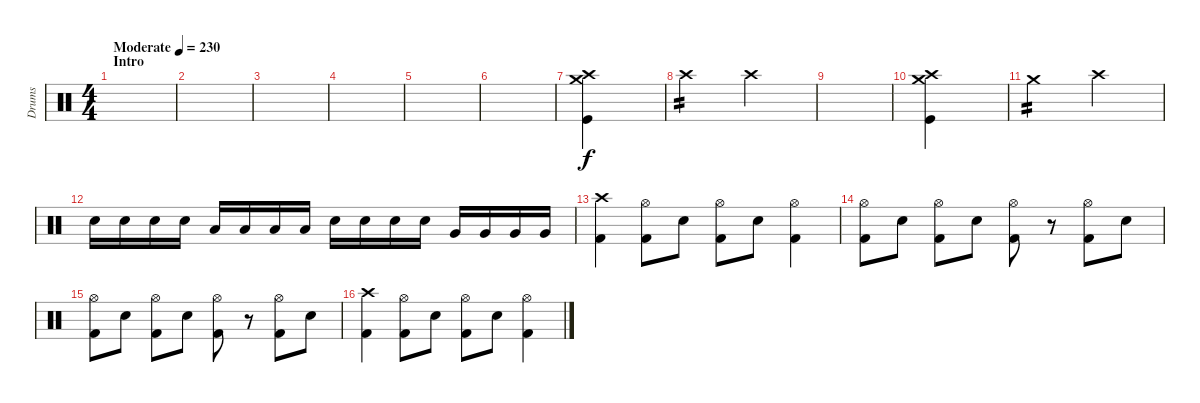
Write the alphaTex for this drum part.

\track ("Drums" "Drums") {instrument percussion}
\staff {score}
\articulation defaults
\ts (4 4)
\section ("" "Intro")
\tempo (230 "Moderate")
\clef neutral
\ks c
|
|
|
|
|
|
("Crash high (hit)" "Crash medium (hit)" "Kick (hit)").4 |
"Crash high (hit)".4{tp 2} "Crash high (hit)".4 |
|
("Crash high (hit)" "Crash medium (hit)" "Kick (hit)").4 |
"Crash medium (hit)".4{tp 2} "Crash high (hit)".4 |
"Electric Snare (hit)".16 "Electric Snare (hit)".16 "Electric Snare (hit)".16 "Electric Snare (hit)".16 "Low Tom (hit)".16 "Low Tom (hit)".16 "Low Tom (hit)".16 "Low Tom (hit)".16 "Electric Snare (hit)".16 "Electric Snare (hit)".16 "Electric Snare (hit)".16 "Electric Snare (hit)".16 "Very Low Tom (hit)".16 "Very Low Tom (hit)".16 "Very Low Tom (hit)".16 "Very Low Tom (hit)".16 |
("Crash high (hit)" "Kick (hit) 2").4 ("Hi-Hat (open)" "Kick (hit) 2").8 "Electric Snare (hit)".8 ("Hi-Hat (open)" "Kick (hit) 2").8 "Electric Snare (hit)".8 ("Hi-Hat (open)" "Kick (hit) 2").4 |
("Hi-Hat (open)" "Kick (hit) 2").8 "Electric Snare (hit)".8 ("Hi-Hat (open)" "Kick (hit) 2").8 "Electric Snare (hit)".8 ("Hi-Hat (open)" "Kick (hit) 2").8 r.8 ("Hi-Hat (open)" "Kick (hit) 2").8 "Electric Snare (hit)".8 |
("Hi-Hat (open)" "Kick (hit) 2").8 "Electric Snare (hit)".8 ("Hi-Hat (open)" "Kick (hit) 2").8 "Electric Snare (hit)".8 ("Hi-Hat (open)" "Kick (hit) 2").8 r.8 ("Hi-Hat (open)" "Kick (hit) 2").8 "Electric Snare (hit)".8 |
("Crash high (hit)" "Kick (hit) 2").4 ("Hi-Hat (open)" "Kick (hit) 2").8 "Electric Snare (hit)".8 ("Hi-Hat (open)" "Kick (hit) 2").8 "Electric Snare (hit)".8 ("Hi-Hat (open)" "Kick (hit) 2").4
